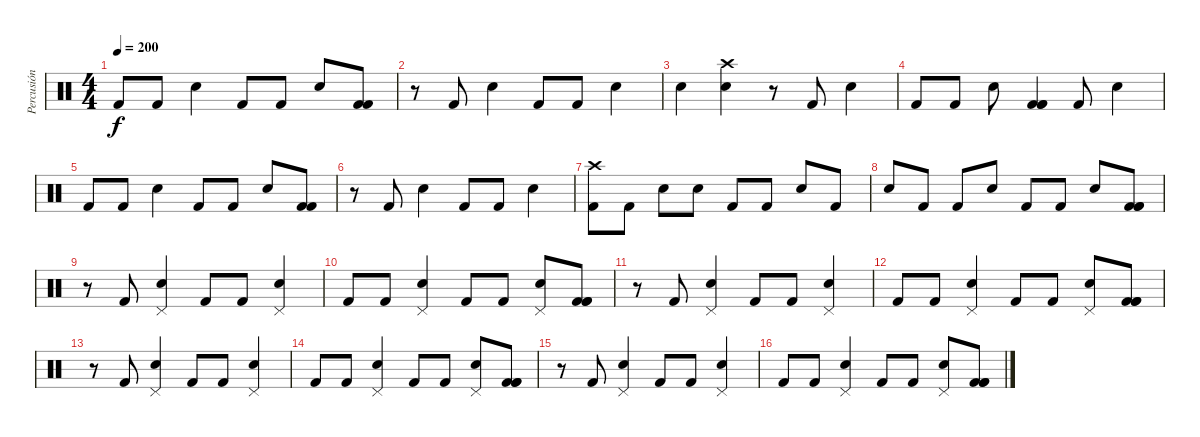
\track ("Percusión" "Percusión") {instrument percussion}
\staff {score}
\articulation defaults
\ts (4 4)
\tempo 200
\clef neutral
\ks c "Kick (hit) 2".8{dy f} "Kick (hit) 2".8 "Electric Snare (hit)".4 "Kick (hit) 2".8 "Kick (hit) 2".8 "Electric Snare (hit)".8
("Kick (hit) 2" "Kick (hit) 2").8 |
r.8 "Kick (hit) 2".8 "Electric Snare (hit)".4 "Kick (hit) 2".8 "Kick (hit) 2".8 "Electric Snare (hit)".4 |
"Electric Snare (hit)".4 ("Electric Snare (hit)" "Crash high (hit)").4 r.8 "Kick (hit) 2".8 "Electric Snare (hit)".4 |
"Kick (hit) 2".8 "Kick (hit) 2".8 "Electric Snare (hit)".8 ("Kick (hit) 2" "Kick (hit) 2" "Kick (hit) 2").4 "Kick (hit) 2".8 "Electric Snare (hit)".4 |
"Kick (hit) 2".8 "Kick (hit) 2".8 "Electric Snare (hit)".4 "Kick (hit) 2".8 "Kick (hit) 2".8 "Electric Snare (hit)".8 ("Kick (hit) 2" "Kick (hit) 2").8 |
r.8 "Kick (hit) 2".8 "Electric Snare (hit)".4 "Kick (hit) 2".8 "Kick (hit) 2".8 "Electric Snare (hit)".4 |
("Kick (hit) 2" "Crash high (hit)").8 "Kick (hit) 2".8 "Electric Snare (hit)".8 "Electric Snare (hit)".8 "Kick (hit) 2".8 "Kick (hit) 2".8 "Electric Snare (hit)".8 "Kick (hit) 2".8 |
"Electric Snare (hit)".8 "Kick (hit) 2".8 "Kick (hit) 2".8 "Electric Snare (hit)".8 "Kick (hit) 2".8 "Kick (hit) 2".8 "Electric Snare (hit)".8 ("Kick (hit) 2" "Kick (hit) 2" "Kick (hit) 2").8 |
r.8 "Kick (hit) 2".8 ("Electric Snare (hit)" "Pedal Hi-Hat (hit)").4 "Kick (hit) 2".8 "Kick (hit) 2".8 ("Electric Snare (hit)" "Pedal Hi-Hat (hit)").4 |
"Kick (hit) 2".8 "Kick (hit) 2".8 ("Electric Snare (hit)" "Pedal Hi-Hat (hit)").4 "Kick (hit) 2".8 "Kick (hit) 2".8 ("Electric Snare (hit)" "Pedal Hi-Hat (hit)").8 ("Kick (hit) 2" "Kick (hit) 2" "Kick (hit) 2").8 |
r.8 "Kick (hit) 2".8 ("Electric Snare (hit)" "Pedal Hi-Hat (hit)").4 "Kick (hit) 2".8 "Kick (hit) 2".8 ("Electric Snare (hit)" "Pedal Hi-Hat (hit)").4 |
"Kick (hit) 2".8 "Kick (hit) 2".8 ("Electric Snare (hit)" "Pedal Hi-Hat (hit)").4 "Kick (hit) 2".8 "Kick (hit) 2".8 ("Electric Snare (hit)" "Pedal Hi-Hat (hit)").8 ("Kick (hit) 2" "Kick (hit) 2" "Kick (hit) 2").8 |
r.8 "Kick (hit) 2".8 ("Electric Snare (hit)" "Pedal Hi-Hat (hit)").4 "Kick (hit) 2".8 "Kick (hit) 2".8 ("Electric Snare (hit)" "Pedal Hi-Hat (hit)").4 |
"Kick (hit) 2".8 "Kick (hit) 2".8 ("Electric Snare (hit)" "Pedal Hi-Hat (hit)").4 "Kick (hit) 2".8 "Kick (hit) 2".8 ("Electric Snare (hit)" "Pedal Hi-Hat (hit)").8 ("Kick (hit) 2" "Kick (hit) 2" "Kick (hit) 2").8 |
r.8 "Kick (hit) 2".8 ("Electric Snare (hit)" "Pedal Hi-Hat (hit)").4 "Kick (hit) 2".8 "Kick (hit) 2".8 ("Electric Snare (hit)" "Pedal Hi-Hat (hit)").4 |
"Kick (hit) 2".8 "Kick (hit) 2".8 ("Electric Snare (hit)" "Pedal Hi-Hat (hit)").4 "Kick (hit) 2".8 "Kick (hit) 2".8 ("Electric Snare (hit)" "Pedal Hi-Hat (hit)").8 ("Kick (hit) 2" "Kick (hit) 2" "Kick (hit) 2").8
